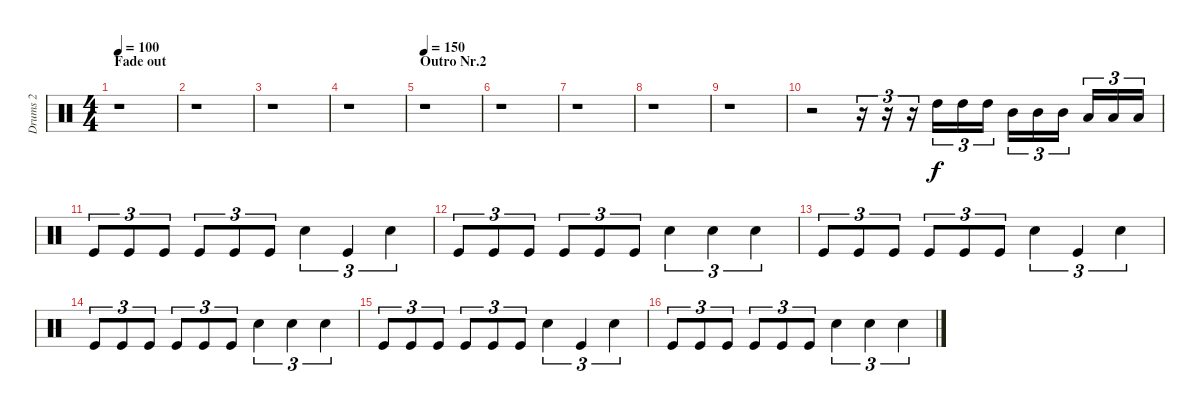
\track ("Drums 2" "Drums 2") {instrument percussion}
\staff {score}
\articulation defaults
\ts (4 4)
\section ("" "Fade out")
\tempo 100
\clef neutral
\ks c
r.1{dy f} |
r.1 |
r.1 |
r.1 |
\section ("" "Outro Nr.2")
\tempo 150
r.1 |
r.1 |
r.1 |
r.1 |
r.1 |
r.2 r.16{tu (3 2)} r.16{tu (3 2)} r.16{tu (3 2)} "High Tom (hit)".16{tu (3 2)} "High Tom (hit)".16{tu (3 2)} "High Tom (hit)".16{tu (3 2)} "Mid Tom (hit)".16{tu (3 2)} "Mid Tom (hit)".16{tu (3 2)} "Mid Tom (hit)".16{tu (3 2)} "Low Tom (hit)".16{tu (3 2)} "Low Tom (hit)".16{tu (3 2)} "Low Tom (hit)".16{tu (3 2)} |
"Kick (hit)".8{tu (3 2)} "Kick (hit)".8{tu (3 2)} "Kick (hit)".8{tu (3 2)} "Kick (hit)".8{tu (3 2)} "Kick (hit)".8{tu (3 2)} "Kick (hit)".8{tu (3 2)} "Snare (hit) 2".4{tu (3 2)} "Kick (hit)".4{tu (3 2)} "Snare (hit) 2".4{tu (3 2)} |
"Kick (hit)".8{tu (3 2)} "Kick (hit)".8{tu (3 2)} "Kick (hit)".8{tu (3 2)} "Kick (hit)".8{tu (3 2)} "Kick (hit)".8{tu (3 2)} "Kick (hit)".8{tu (3 2)} "Snare (hit) 2".4{tu (3 2)} "Snare (hit) 2".4{tu (3 2)} "Snare (hit) 2".4{tu (3 2)} |
"Kick (hit)".8{tu (3 2)} "Kick (hit)".8{tu (3 2)} "Kick (hit)".8{tu (3 2)} "Kick (hit)".8{tu (3 2)} "Kick (hit)".8{tu (3 2)} "Kick (hit)".8{tu (3 2)} "Snare (hit) 2".4{tu (3 2)} "Kick (hit)".4{tu (3 2)} "Snare (hit) 2".4{tu (3 2)} |
"Kick (hit)".8{tu (3 2)} "Kick (hit)".8{tu (3 2)} "Kick (hit)".8{tu (3 2)} "Kick (hit)".8{tu (3 2)} "Kick (hit)".8{tu (3 2)} "Kick (hit)".8{tu (3 2)} "Snare (hit) 2".4{tu (3 2)} "Snare (hit) 2".4{tu (3 2)} "Snare (hit) 2".4{tu (3 2)} |
"Kick (hit)".8{tu (3 2)} "Kick (hit)".8{tu (3 2)} "Kick (hit)".8{tu (3 2)} "Kick (hit)".8{tu (3 2)} "Kick (hit)".8{tu (3 2)} "Kick (hit)".8{tu (3 2)} "Snare (hit) 2".4{tu (3 2)} "Kick (hit)".4{tu (3 2)} "Snare (hit) 2".4{tu (3 2)} |
"Kick (hit)".8{tu (3 2)} "Kick (hit)".8{tu (3 2)} "Kick (hit)".8{tu (3 2)} "Kick (hit)".8{tu (3 2)} "Kick (hit)".8{tu (3 2)} "Kick (hit)".8{tu (3 2)} "Snare (hit) 2".4{tu (3 2)} "Snare (hit) 2".4{tu (3 2)} "Snare (hit) 2".4{tu (3 2)}
